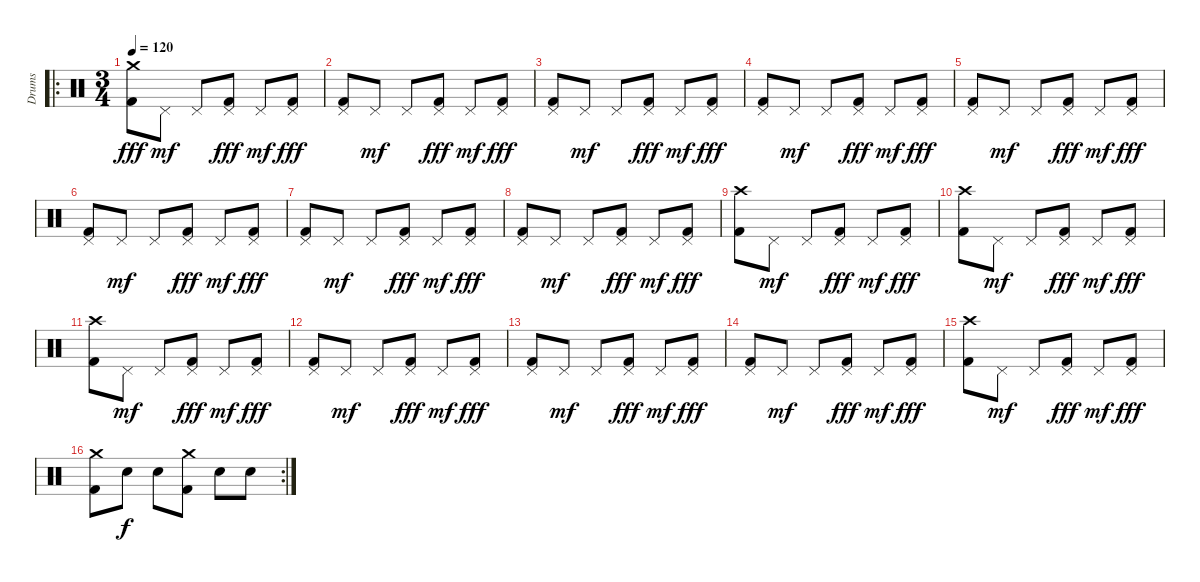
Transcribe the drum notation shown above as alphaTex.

\track ("Drums" "Drums") {instrument percussion}
\staff {score}
\articulation defaults
\ro
\ts (3 4)
\tempo 120
\clef neutral
\ks c
("Crash medium (hit)" "Kick (hit) 2").8{dy fff} "Pedal Hi-Hat (hit)".8{dy mf} "Pedal Hi-Hat (hit)".8 ("Pedal Hi-Hat (hit)" "Kick (hit) 2").8{dy fff} "Pedal Hi-Hat (hit)".8{dy mf} ("Pedal Hi-Hat (hit)" "Kick (hit) 2").8{dy fff} |
("Pedal Hi-Hat (hit)" "Kick (hit) 2").8 "Pedal Hi-Hat (hit)".8{dy mf} "Pedal Hi-Hat (hit)".8 ("Pedal Hi-Hat (hit)" "Kick (hit) 2").8{dy fff} "Pedal Hi-Hat (hit)".8{dy mf} ("Pedal Hi-Hat (hit)" "Kick (hit) 2").8{dy fff} |
("Pedal Hi-Hat (hit)" "Kick (hit) 2").8 "Pedal Hi-Hat (hit)".8{dy mf} "Pedal Hi-Hat (hit)".8 ("Pedal Hi-Hat (hit)" "Kick (hit) 2").8{dy fff} "Pedal Hi-Hat (hit)".8{dy mf} ("Pedal Hi-Hat (hit)" "Kick (hit) 2").8{dy fff} |
("Pedal Hi-Hat (hit)" "Kick (hit) 2").8 "Pedal Hi-Hat (hit)".8{dy mf} "Pedal Hi-Hat (hit)".8 ("Pedal Hi-Hat (hit)" "Kick (hit) 2").8{dy fff} "Pedal Hi-Hat (hit)".8{dy mf} ("Pedal Hi-Hat (hit)" "Kick (hit) 2").8{dy fff} |
("Pedal Hi-Hat (hit)" "Kick (hit) 2").8 "Pedal Hi-Hat (hit)".8{dy mf} "Pedal Hi-Hat (hit)".8 ("Pedal Hi-Hat (hit)" "Kick (hit) 2").8{dy fff} "Pedal Hi-Hat (hit)".8{dy mf} ("Pedal Hi-Hat (hit)" "Kick (hit) 2").8{dy fff} |
("Pedal Hi-Hat (hit)" "Kick (hit) 2").8 "Pedal Hi-Hat (hit)".8{dy mf} "Pedal Hi-Hat (hit)".8 ("Pedal Hi-Hat (hit)" "Kick (hit) 2").8{dy fff} "Pedal Hi-Hat (hit)".8{dy mf} ("Pedal Hi-Hat (hit)" "Kick (hit) 2").8{dy fff} |
("Pedal Hi-Hat (hit)" "Kick (hit) 2").8 "Pedal Hi-Hat (hit)".8{dy mf} "Pedal Hi-Hat (hit)".8 ("Pedal Hi-Hat (hit)" "Kick (hit) 2").8{dy fff} "Pedal Hi-Hat (hit)".8{dy mf} ("Pedal Hi-Hat (hit)" "Kick (hit) 2").8{dy fff} |
("Pedal Hi-Hat (hit)" "Kick (hit) 2").8 "Pedal Hi-Hat (hit)".8{dy mf} "Pedal Hi-Hat (hit)".8 ("Pedal Hi-Hat (hit)" "Kick (hit) 2").8{dy fff} "Pedal Hi-Hat (hit)".8{dy mf} ("Pedal Hi-Hat (hit)" "Kick (hit) 2").8{dy fff} |
("Crash high (hit)" "Kick (hit) 2").8 "Pedal Hi-Hat (hit)".8{dy mf} "Pedal Hi-Hat (hit)".8 ("Pedal Hi-Hat (hit)" "Kick (hit) 2").8{dy fff} "Pedal Hi-Hat (hit)".8{dy mf} ("Pedal Hi-Hat (hit)" "Kick (hit) 2").8{dy fff} |
("Crash high (hit)" "Kick (hit) 2").8 "Pedal Hi-Hat (hit)".8{dy mf} "Pedal Hi-Hat (hit)".8 ("Pedal Hi-Hat (hit)" "Kick (hit) 2").8{dy fff} "Pedal Hi-Hat (hit)".8{dy mf} ("Pedal Hi-Hat (hit)" "Kick (hit) 2").8{dy fff} |
("Crash high (hit)" "Kick (hit) 2").8 "Pedal Hi-Hat (hit)".8{dy mf} "Pedal Hi-Hat (hit)".8 ("Pedal Hi-Hat (hit)" "Kick (hit) 2").8{dy fff} "Pedal Hi-Hat (hit)".8{dy mf} ("Pedal Hi-Hat (hit)" "Kick (hit) 2").8{dy fff} |
("Pedal Hi-Hat (hit)" "Kick (hit) 2").8 "Pedal Hi-Hat (hit)".8{dy mf} "Pedal Hi-Hat (hit)".8 ("Pedal Hi-Hat (hit)" "Kick (hit) 2").8{dy fff} "Pedal Hi-Hat (hit)".8{dy mf} ("Pedal Hi-Hat (hit)" "Kick (hit) 2").8{dy fff} |
("Pedal Hi-Hat (hit)" "Kick (hit) 2").8 "Pedal Hi-Hat (hit)".8{dy mf} "Pedal Hi-Hat (hit)".8 ("Pedal Hi-Hat (hit)" "Kick (hit) 2").8{dy fff} "Pedal Hi-Hat (hit)".8{dy mf} ("Pedal Hi-Hat (hit)" "Kick (hit) 2").8{dy fff} |
("Pedal Hi-Hat (hit)" "Kick (hit) 2").8 "Pedal Hi-Hat (hit)".8{dy mf} "Pedal Hi-Hat (hit)".8 ("Pedal Hi-Hat (hit)" "Kick (hit) 2").8{dy fff} "Pedal Hi-Hat (hit)".8{dy mf} ("Pedal Hi-Hat (hit)" "Kick (hit) 2").8{dy fff} |
("Crash high (hit)" "Kick (hit) 2").8 "Pedal Hi-Hat (hit)".8{dy mf} "Pedal Hi-Hat (hit)".8 ("Pedal Hi-Hat (hit)" "Kick (hit) 2").8{dy fff} "Pedal Hi-Hat (hit)".8{dy mf} ("Pedal Hi-Hat (hit)" "Kick (hit) 2").8{dy fff} |
\rc 2
("Crash medium (hit)" "Kick (hit) 2").8 "Electric Snare (hit)".8{dy f} "Electric Snare (hit)".8 ("Crash medium (hit)" "Kick (hit) 2").8 "Electric Snare (hit)".8 "Electric Snare (hit)".8
